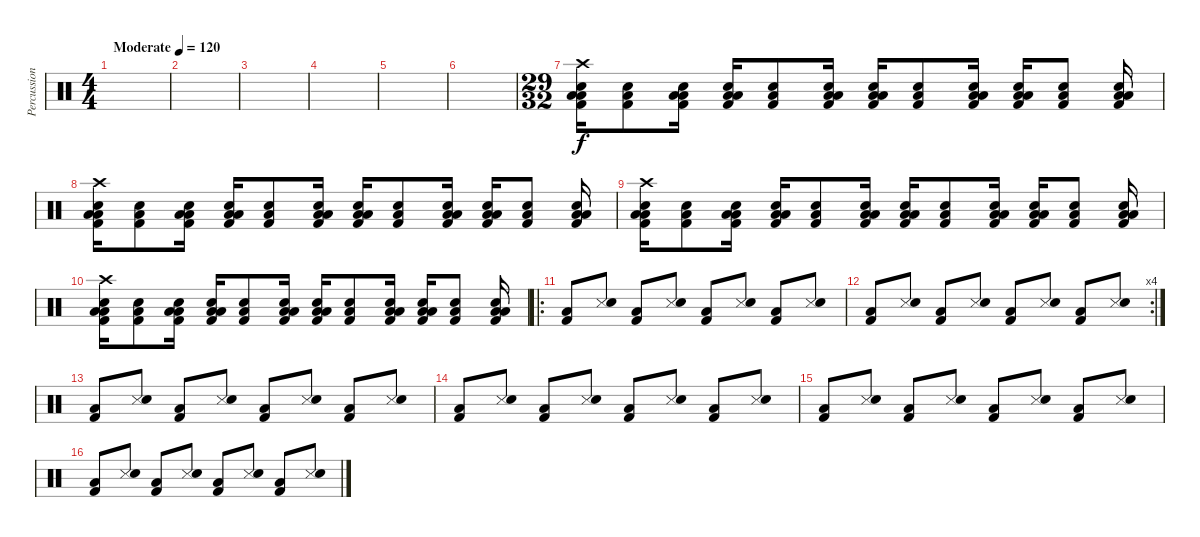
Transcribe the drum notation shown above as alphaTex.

\track ("Percussion" "Percussion") {instrument percussion}
\staff {score}
\articulation defaults
\ts (4 4)
\tempo (120 "Moderate")
\clef neutral
\ks c
|
|
|
|
|
|
\ts (29 32)
("Crash high (hit)" "Low Floor Tom (hit)" "Low Tom (hit)" "Electric Snare (hit)" "Kick (hit) 2").16 ("Low Tom (hit)" "Electric Snare (hit)" "Kick (hit) 2").8 ("Low Floor Tom (hit)" "Low Tom (hit)" "Electric Snare (hit)" "Kick (hit) 2").16 ("Low Floor Tom (hit)" "Low Tom (hit)" "Electric Snare (hit)" "Kick (hit) 2").16 ("Low Tom (hit)" "Electric Snare (hit)" "Kick (hit) 2").8 ("Low Floor Tom (hit)" "Low Tom (hit)" "Electric Snare (hit)" "Kick (hit) 2").16 ("Low Floor Tom (hit)" "Low Tom (hit)" "Electric Snare (hit)" "Kick (hit) 2").16 ("Low Tom (hit)" "Electric Snare (hit)" "Kick (hit) 2").8 ("Low Floor Tom (hit)" "Low Tom (hit)" "Electric Snare (hit)" "Kick (hit) 2").16 ("Low Floor Tom (hit)" "Low Tom (hit)" "Electric Snare (hit)" "Kick (hit) 2").16 ("Low Tom (hit)" "Electric Snare (hit)" "Kick (hit) 2").8 ("Low Floor Tom (hit)" "Low Tom (hit)" "Electric Snare (hit)" "Kick (hit) 2").16 |
("Crash high (hit)" "Low Floor Tom (hit)" "Low Tom (hit)" "Electric Snare (hit)" "Kick (hit) 2").16 ("Low Tom (hit)" "Electric Snare (hit)" "Kick (hit) 2").8 ("Low Floor Tom (hit)" "Low Tom (hit)" "Electric Snare (hit)" "Kick (hit) 2").16 ("Low Floor Tom (hit)" "Low Tom (hit)" "Electric Snare (hit)" "Kick (hit) 2").16 ("Low Tom (hit)" "Electric Snare (hit)" "Kick (hit) 2").8 ("Low Floor Tom (hit)" "Low Tom (hit)" "Electric Snare (hit)" "Kick (hit) 2").16 ("Low Floor Tom (hit)" "Low Tom (hit)" "Electric Snare (hit)" "Kick (hit) 2").16 ("Low Tom (hit)" "Electric Snare (hit)" "Kick (hit) 2").8 ("Low Floor Tom (hit)" "Low Tom (hit)" "Electric Snare (hit)" "Kick (hit) 2").16 ("Low Floor Tom (hit)" "Low Tom (hit)" "Electric Snare (hit)" "Kick (hit) 2").16 ("Low Tom (hit)" "Electric Snare (hit)" "Kick (hit) 2").8 ("Low Floor Tom (hit)" "Low Tom (hit)" "Electric Snare (hit)" "Kick (hit) 2").16 |
("Crash high (hit)" "Low Floor Tom (hit)" "Low Tom (hit)" "Electric Snare (hit)" "Kick (hit) 2").16 ("Low Tom (hit)" "Electric Snare (hit)" "Kick (hit) 2").8 ("Low Floor Tom (hit)" "Low Tom (hit)" "Electric Snare (hit)" "Kick (hit) 2").16 ("Low Floor Tom (hit)" "Low Tom (hit)" "Electric Snare (hit)" "Kick (hit) 2").16 ("Low Tom (hit)" "Electric Snare (hit)" "Kick (hit) 2").8 ("Low Floor Tom (hit)" "Low Tom (hit)" "Electric Snare (hit)" "Kick (hit) 2").16 ("Low Floor Tom (hit)" "Low Tom (hit)" "Electric Snare (hit)" "Kick (hit) 2").16 ("Low Tom (hit)" "Electric Snare (hit)" "Kick (hit) 2").8 ("Low Floor Tom (hit)" "Low Tom (hit)" "Electric Snare (hit)" "Kick (hit) 2").16 ("Low Floor Tom (hit)" "Low Tom (hit)" "Electric Snare (hit)" "Kick (hit) 2").16 ("Low Tom (hit)" "Electric Snare (hit)" "Kick (hit) 2").8 ("Low Floor Tom (hit)" "Low Tom (hit)" "Electric Snare (hit)" "Kick (hit) 2").16 |
("Crash high (hit)" "Low Floor Tom (hit)" "Low Tom (hit)" "Electric Snare (hit)" "Kick (hit) 2").16 ("Low Tom (hit)" "Electric Snare (hit)" "Kick (hit) 2").8 ("Low Floor Tom (hit)" "Low Tom (hit)" "Electric Snare (hit)" "Kick (hit) 2").16 ("Low Floor Tom (hit)" "Low Tom (hit)" "Electric Snare (hit)" "Kick (hit) 2").16 ("Low Tom (hit)" "Electric Snare (hit)" "Kick (hit) 2").8 ("Low Floor Tom (hit)" "Low Tom (hit)" "Electric Snare (hit)" "Kick (hit) 2").16 ("Low Floor Tom (hit)" "Low Tom (hit)" "Electric Snare (hit)" "Kick (hit) 2").16 ("Low Tom (hit)" "Electric Snare (hit)" "Kick (hit) 2").8 ("Low Floor Tom (hit)" "Low Tom (hit)" "Electric Snare (hit)" "Kick (hit) 2").16 ("Low Floor Tom (hit)" "Low Tom (hit)" "Electric Snare (hit)" "Kick (hit) 2").16 ("Low Tom (hit)" "Electric Snare (hit)" "Kick (hit) 2").8 ("Low Floor Tom (hit)" "Low Tom (hit)" "Electric Snare (hit)" "Kick (hit) 2").16 |
\ro
("Low Tom (hit)" "Kick (hit) 2").8 ("Snare (side stick) 3" "Electric Snare (hit)").8 ("Low Tom (hit)" "Kick (hit) 2").8 ("Snare (side stick) 3" "Electric Snare (hit)").8 ("Low Tom (hit)" "Kick (hit) 2").8 ("Snare (side stick) 3" "Electric Snare (hit)").8 ("Low Tom (hit)" "Kick (hit) 2").8 ("Snare (side stick) 3" "Electric Snare (hit)").8 |
\rc 4
("Low Tom (hit)" "Kick (hit) 2").8 ("Snare (side stick) 3" "Electric Snare (hit)").8 ("Low Tom (hit)" "Kick (hit) 2").8 ("Snare (side stick) 3" "Electric Snare (hit)").8 ("Low Tom (hit)" "Kick (hit) 2").8 ("Snare (side stick) 3" "Electric Snare (hit)").8 ("Low Tom (hit)" "Kick (hit) 2").8 ("Snare (side stick) 3" "Electric Snare (hit)").8 |
("Low Tom (hit)" "Kick (hit) 2").8 ("Snare (side stick) 3" "Electric Snare (hit)").8 ("Low Tom (hit)" "Kick (hit) 2").8 ("Snare (side stick) 3" "Electric Snare (hit)").8 ("Low Tom (hit)" "Kick (hit) 2").8 ("Snare (side stick) 3" "Electric Snare (hit)").8 ("Low Tom (hit)" "Kick (hit) 2").8 ("Snare (side stick) 3" "Electric Snare (hit)").8 |
("Low Tom (hit)" "Kick (hit) 2").8 ("Snare (side stick) 3" "Electric Snare (hit)").8 ("Low Tom (hit)" "Kick (hit) 2").8 ("Snare (side stick) 3" "Electric Snare (hit)").8 ("Low Tom (hit)" "Kick (hit) 2").8 ("Snare (side stick) 3" "Electric Snare (hit)").8 ("Low Tom (hit)" "Kick (hit) 2").8 ("Snare (side stick) 3" "Electric Snare (hit)").8 |
("Low Tom (hit)" "Kick (hit) 2").8 ("Snare (side stick) 3" "Electric Snare (hit)").8 ("Low Tom (hit)" "Kick (hit) 2").8 ("Snare (side stick) 3" "Electric Snare (hit)").8 ("Low Tom (hit)" "Kick (hit) 2").8 ("Snare (side stick) 3" "Electric Snare (hit)").8 ("Low Tom (hit)" "Kick (hit) 2").8 ("Snare (side stick) 3" "Electric Snare (hit)").8 |
("Low Tom (hit)" "Kick (hit) 2").8 ("Snare (side stick) 3" "Electric Snare (hit)").8 ("Low Tom (hit)" "Kick (hit) 2").8 ("Snare (side stick) 3" "Electric Snare (hit)").8 ("Low Tom (hit)" "Kick (hit) 2").8 ("Snare (side stick) 3" "Electric Snare (hit)").8 ("Low Tom (hit)" "Kick (hit) 2").8 ("Snare (side stick) 3" "Electric Snare (hit)").8
